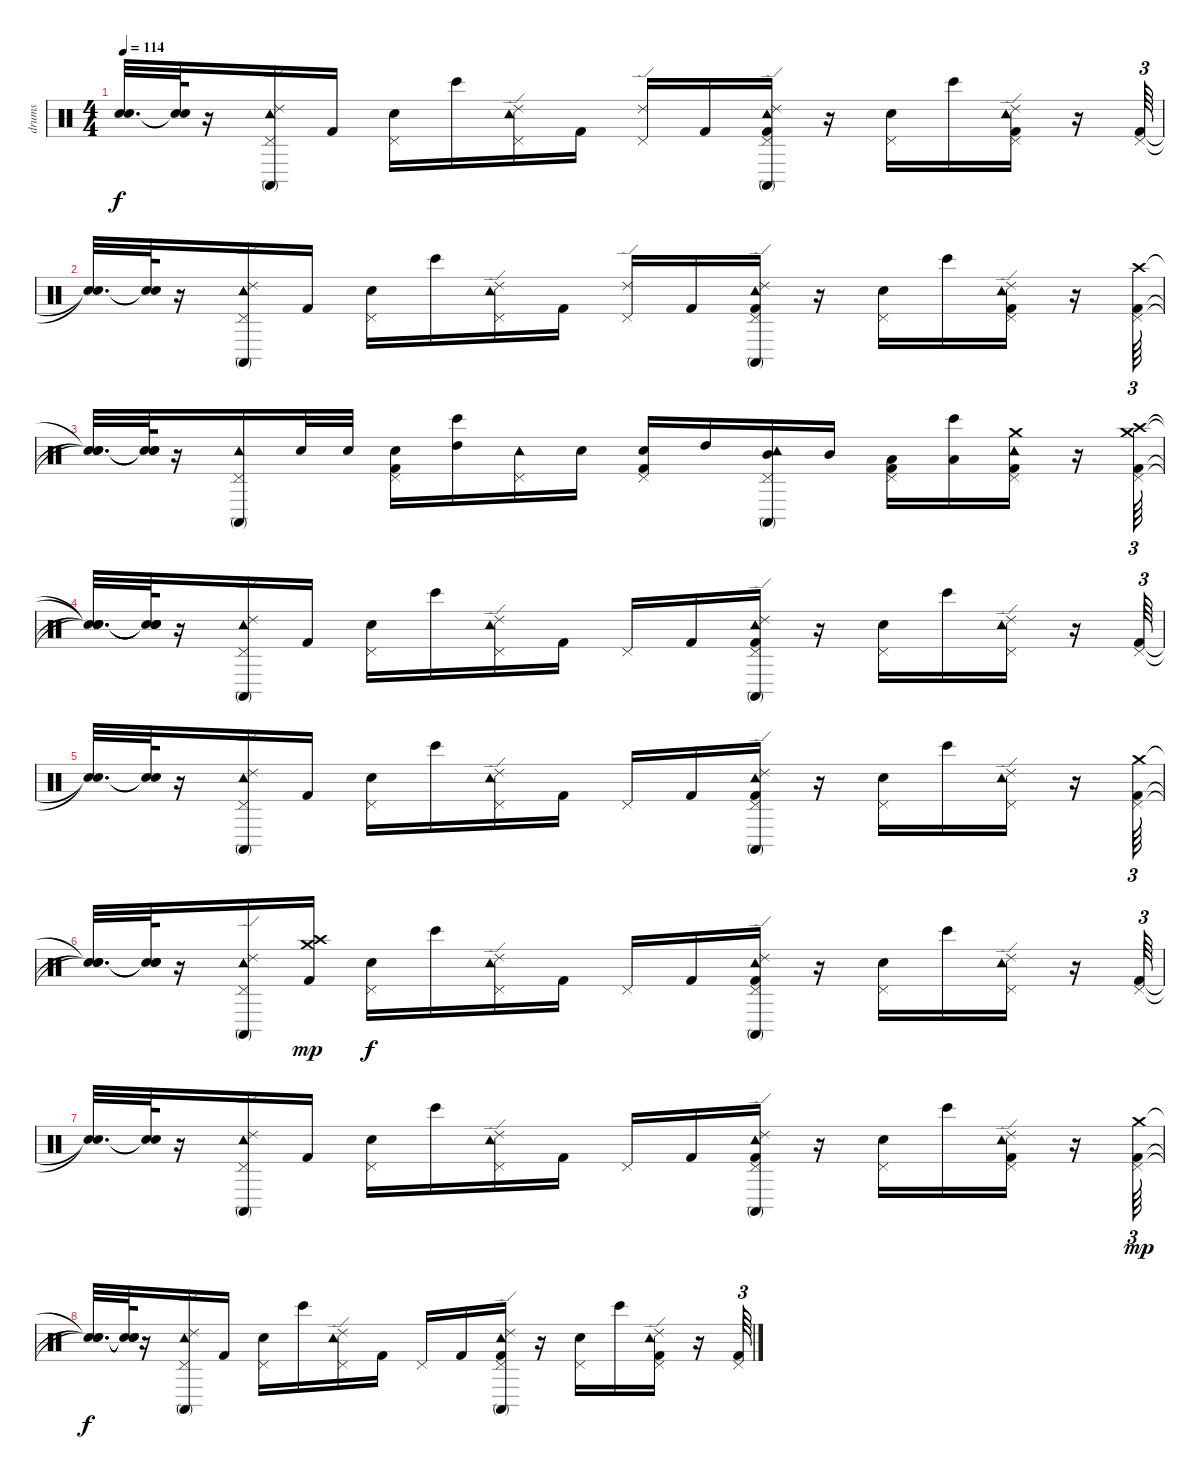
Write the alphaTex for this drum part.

\track ("drums" "drums") {instrument percussion}
\staff {score}
\articulation defaults
\ts (4 4)
\tempo 114
\clef neutral
\ks c
("Snare (hit)"{t} "Snare (hit)"{t}).32{d dy f} ("Snare (hit)"{t} "Snare (hit)"{t}).64 r.16 ("Ride (edge) 2" "Pedal Hi-Hat (hit)" "Tambourine (hit)" "Conga high (mute)").16 "Kick (hit) 2".16 ("Electric Snare (hit)" "Pedal Hi-Hat (hit)").16 "Bongo High (hit)".16 ("Ride (edge) 2" "Pedal Hi-Hat (hit)" "Tambourine (hit)").16 "Kick (hit) 2".16 ("Ride (edge) 2" "Pedal Hi-Hat (hit)").16 "Kick (hit) 2".16 ("Kick (hit) 2" "Ride (edge) 2" "Pedal Hi-Hat (hit)" "Conga high (mute)" "Tambourine (hit)").16 r.16 ("Electric Snare (hit)" "Pedal Hi-Hat (hit)").16 "Bongo High (hit)".16 ("Ride (edge) 2" "Kick (hit) 2" "Pedal Hi-Hat (hit)" "Tambourine (hit)").16 r.16 ("Pedal Hi-Hat (hit)" "Kick (hit) 2").64{tu (3 2)} |
("Snare (hit)"{t} "Snare (hit)"{t}).32{d} ("Snare (hit)"{t} "Snare (hit)"{t}).64 r.16 ("Pedal Hi-Hat (hit)" "Tambourine (hit)" "Conga high (mute)" "Ride (edge) 2").16 "Kick (hit) 2".16 ("Pedal Hi-Hat (hit)" "Electric Snare (hit)").16 "Bongo High (hit)".16 ("Pedal Hi-Hat (hit)" "Tambourine (hit)" "Ride (edge) 2").16 "Kick (hit) 2".16 ("Pedal Hi-Hat (hit)" "Ride (edge) 2").16 "Kick (hit) 2".16 ("Pedal Hi-Hat (hit)" "Conga high (mute)" "Tambourine (hit)" "Kick (hit) 2" "Ride (edge) 2").16 r.16 ("Pedal Hi-Hat (hit)" "Electric Snare (hit)").16 "Bongo High (hit)".16 ("Pedal Hi-Hat (hit)" "Tambourine (hit)" "Ride (edge) 2" "Kick (hit) 2").16 r.16 ("Pedal Hi-Hat (hit)" "Crash high (hit)" "Kick (hit) 2").64{tu (3 2)} |
("Snare (hit)"{t} "Snare (hit)"{t} "Snare (hit)"{t}).32{d} ("Snare (hit)"{t} "Snare (hit)"{t} "Snare (hit)"{t}).64 r.16 ("Pedal Hi-Hat (hit)" "Tambourine (hit)" "Conga high (mute)").16 "Electric Snare (hit)".32 "Electric Snare (hit)".32 ("Kick (hit) 2" "Electric Snare (hit)" "Pedal Hi-Hat (hit)").16 ("High Tom (hit)" "Bongo High (hit)").16 ("Pedal Hi-Hat (hit)" "Tambourine (hit)").16 "Electric Snare (hit)".16 ("Kick (hit) 2" "Electric Snare (hit)" "Pedal Hi-Hat (hit)").16 "High Tom (hit)".16 ("Mid Tom (hit)" "Pedal Hi-Hat (hit)" "Conga high (mute)" "Tambourine (hit)").16 "Mid Tom (hit)".16 ("Kick (hit) 2" "Low Tom (hit)" "Pedal Hi-Hat (hit)").16 ("Low Tom (hit)" "Bongo High (hit)").16 ("Crash medium (hit)" "Kick (hit) 2" "Pedal Hi-Hat (hit)" "Tambourine (hit)").16 r.16 ("Pedal Hi-Hat (hit)" "Crash medium (hit)" "Crash high (hit)" "Kick (hit) 2").64{tu (3 2)} |
("Snare (hit)"{t} "Snare (hit)"{t} "Snare (hit)"{t} "Snare (hit)"{t}).32{d} ("Snare (hit)"{t} "Snare (hit)"{t} "Snare (hit)"{t} "Snare (hit)"{t}).64 r.16 ("Pedal Hi-Hat (hit)" "Tambourine (hit)" "Conga high (mute)" "Ride (edge) 2").16 "Kick (hit) 2".16 ("Pedal Hi-Hat (hit)" "Electric Snare (hit)").16 "Bongo High (hit)".16 ("Pedal Hi-Hat (hit)" "Tambourine (hit)" "Ride (edge) 2").16 "Kick (hit) 2".16 "Pedal Hi-Hat (hit)".16 "Kick (hit) 2".16 ("Pedal Hi-Hat (hit)" "Conga high (mute)" "Tambourine (hit)" "Ride (edge) 2" "Kick (hit) 2").16 r.16 ("Pedal Hi-Hat (hit)" "Electric Snare (hit)").16 "Bongo High (hit)".16 ("Pedal Hi-Hat (hit)" "Tambourine (hit)" "Ride (edge) 2").16 r.16 ("Kick (hit) 2" "Pedal Hi-Hat (hit)").64{tu (3 2)} |
("Snare (hit)"{t} "Snare (hit)"{t}).32{d} ("Snare (hit)"{t} "Snare (hit)"{t}).64 r.16 ("Ride (edge) 2" "Pedal Hi-Hat (hit)" "Tambourine (hit)" "Conga high (mute)").16 "Kick (hit) 2".16 ("Electric Snare (hit)" "Pedal Hi-Hat (hit)").16 "Bongo High (hit)".16 ("Ride (edge) 2" "Pedal Hi-Hat (hit)" "Tambourine (hit)").16 "Kick (hit) 2".16 "Pedal Hi-Hat (hit)".16 "Kick (hit) 2".16 ("Ride (edge) 2" "Kick (hit) 2" "Pedal Hi-Hat (hit)" "Conga high (mute)" "Tambourine (hit)").16 r.16 ("Electric Snare (hit)" "Pedal Hi-Hat (hit)").16 "Bongo High (hit)".16 ("Ride (edge) 2" "Pedal Hi-Hat (hit)" "Tambourine (hit)").16 r.16 ("Crash medium (hit)" "Kick (hit) 2" "Pedal Hi-Hat (hit)").64{tu (3 2)} |
("Snare (hit)"{t} "Snare (hit)"{t} "Snare (hit)"{t}).32{d} ("Snare (hit)"{t} "Snare (hit)"{t} "Snare (hit)"{t}).64 r.16 ("Ride (edge) 2" "Pedal Hi-Hat (hit)" "Tambourine (hit)" "Conga high (mute)").16 ("Crash medium (hit)" "Crash high (hit)" "Kick (hit) 2").16{dy mp} ("Electric Snare (hit)" "Pedal Hi-Hat (hit)").16{dy f} "Bongo High (hit)".16 ("Ride (edge) 2" "Pedal Hi-Hat (hit)" "Tambourine (hit)").16 "Kick (hit) 2".16 "Pedal Hi-Hat (hit)".16 "Kick (hit) 2".16 ("Ride (edge) 2" "Kick (hit) 2" "Pedal Hi-Hat (hit)" "Conga high (mute)" "Tambourine (hit)").16 r.16 ("Electric Snare (hit)" "Pedal Hi-Hat (hit)").16 "Bongo High (hit)".16 ("Ride (edge) 2" "Pedal Hi-Hat (hit)" "Tambourine (hit)").16 r.16 ("Kick (hit) 2" "Pedal Hi-Hat (hit)").64{tu (3 2)} |
("Snare (hit)"{t} "Snare (hit)"{t}).32{d} ("Snare (hit)"{t} "Snare (hit)"{t}).64 r.16 ("Ride (edge) 2" "Pedal Hi-Hat (hit)" "Tambourine (hit)" "Conga high (mute)").16 "Kick (hit) 2".16 ("Electric Snare (hit)" "Pedal Hi-Hat (hit)").16 "Bongo High (hit)".16 ("Ride (edge) 2" "Pedal Hi-Hat (hit)" "Tambourine (hit)").16 "Kick (hit) 2".16 "Pedal Hi-Hat (hit)".16 "Kick (hit) 2".16 ("Ride (edge) 2" "Kick (hit) 2" "Pedal Hi-Hat (hit)" "Conga high (mute)" "Tambourine (hit)").16 r.16 ("Electric Snare (hit)" "Pedal Hi-Hat (hit)").16 "Bongo High (hit)".16 ("Kick (hit) 2" "Ride (edge) 2" "Pedal Hi-Hat (hit)" "Tambourine (hit)").16 r.16 ("Crash medium (hit)" "Pedal Hi-Hat (hit)" "Kick (hit) 2").64{tu (3 2) dy mp} |
("Snare (hit)"{t} "Snare (hit)"{t} "Snare (hit)"{t}).32{d dy f} ("Snare (hit)"{t} "Snare (hit)"{t} "Snare (hit)"{t}).64 r.16 ("Pedal Hi-Hat (hit)" "Tambourine (hit)" "Conga high (mute)" "Ride (edge) 2").16 "Kick (hit) 2".16 ("Pedal Hi-Hat (hit)" "Electric Snare (hit)").16 "Bongo High (hit)".16 ("Pedal Hi-Hat (hit)" "Tambourine (hit)" "Ride (edge) 2").16 "Kick (hit) 2".16 "Pedal Hi-Hat (hit)".16 "Kick (hit) 2".16 ("Pedal Hi-Hat (hit)" "Conga high (mute)" "Tambourine (hit)" "Ride (edge) 2" "Kick (hit) 2").16 r.16 ("Pedal Hi-Hat (hit)" "Electric Snare (hit)").16 "Bongo High (hit)".16 ("Pedal Hi-Hat (hit)" "Tambourine (hit)" "Kick (hit) 2" "Ride (edge) 2").16 r.16 ("Pedal Hi-Hat (hit)" "Kick (hit) 2").64{tu (3 2)}
